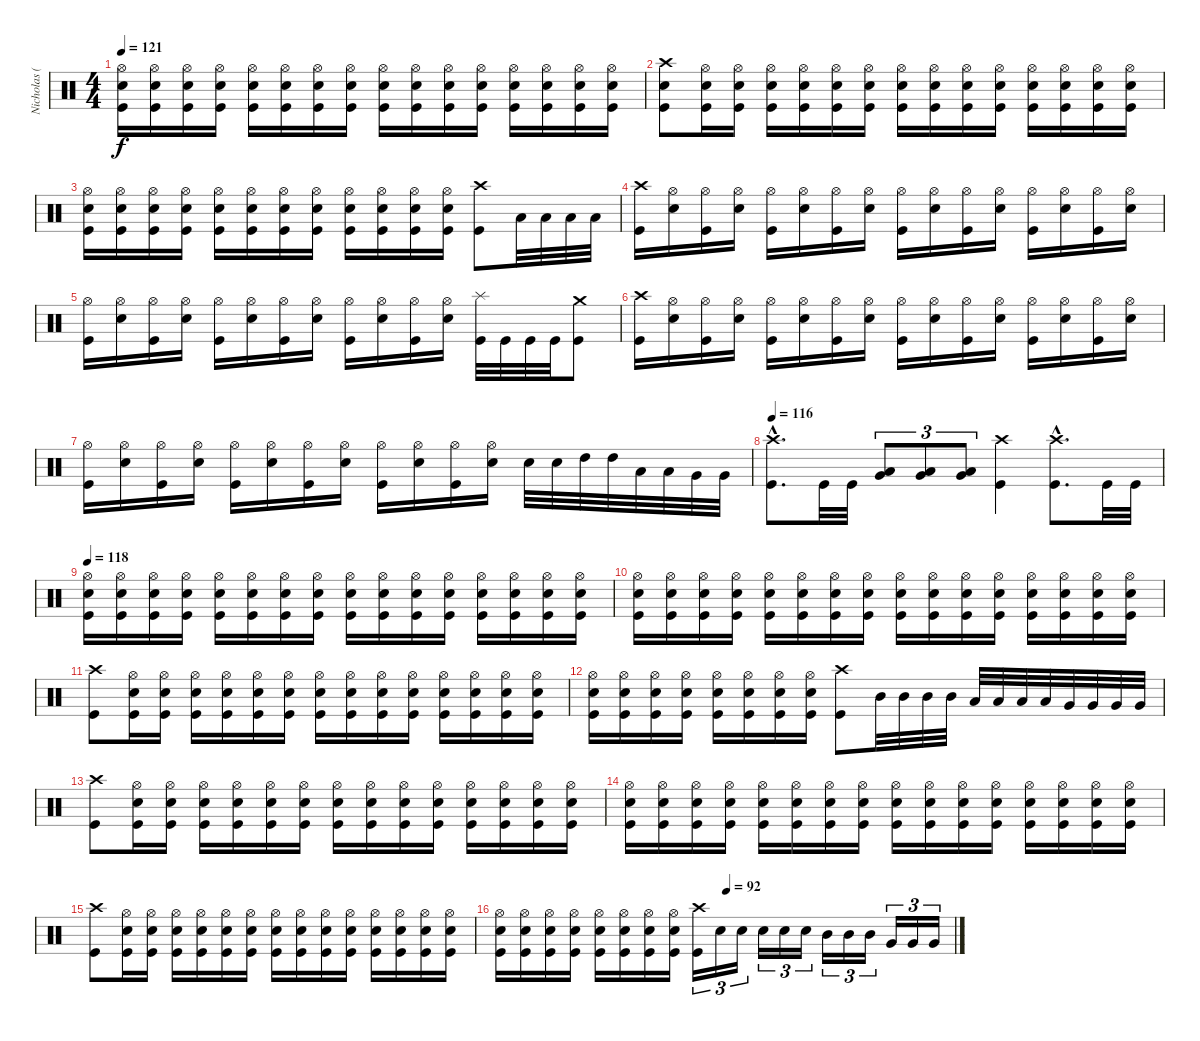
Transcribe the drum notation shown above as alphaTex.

\track ("Nicholas (Drums)" "Nicholas (") {instrument percussion}
\staff {score}
\articulation defaults
\ts (4 4)
\tempo 121
\clef neutral
\ks c
("Hi-Hat (open)" "Electric Snare (hit)" "Kick (hit)").16{dy f} ("Hi-Hat (open)" "Electric Snare (hit)" "Kick (hit)").16 ("Hi-Hat (open)" "Electric Snare (hit)" "Kick (hit)").16 ("Hi-Hat (open)" "Electric Snare (hit)" "Kick (hit)").16 ("Hi-Hat (open)" "Electric Snare (hit)" "Kick (hit)").16 ("Hi-Hat (open)" "Electric Snare (hit)" "Kick (hit)").16 ("Hi-Hat (open)" "Electric Snare (hit)" "Kick (hit)").16 ("Hi-Hat (open)" "Electric Snare (hit)" "Kick (hit)").16 ("Hi-Hat (open)" "Electric Snare (hit)" "Kick (hit)").16 ("Hi-Hat (open)" "Electric Snare (hit)" "Kick (hit)").16 ("Hi-Hat (open)" "Electric Snare (hit)" "Kick (hit)").16 ("Hi-Hat (open)" "Electric Snare (hit)" "Kick (hit)").16 ("Hi-Hat (open)" "Electric Snare (hit)" "Kick (hit)").16 ("Hi-Hat (open)" "Electric Snare (hit)" "Kick (hit)").16 ("Hi-Hat (open)" "Electric Snare (hit)" "Kick (hit)").16 ("Hi-Hat (open)" "Electric Snare (hit)" "Kick (hit)").16 |
("Crash high (hit)" "Electric Snare (hit)" "Kick (hit)").8 ("Hi-Hat (open)" "Electric Snare (hit)" "Kick (hit)").16 ("Hi-Hat (open)" "Electric Snare (hit)" "Kick (hit)").16 ("Hi-Hat (open)" "Electric Snare (hit)" "Kick (hit)").16 ("Hi-Hat (open)" "Electric Snare (hit)" "Kick (hit)").16 ("Hi-Hat (open)" "Electric Snare (hit)" "Kick (hit)").16 ("Hi-Hat (open)" "Electric Snare (hit)" "Kick (hit)").16 ("Hi-Hat (open)" "Electric Snare (hit)" "Kick (hit)").16 ("Hi-Hat (open)" "Electric Snare (hit)" "Kick (hit)").16 ("Hi-Hat (open)" "Electric Snare (hit)" "Kick (hit)").16 ("Hi-Hat (open)" "Electric Snare (hit)" "Kick (hit)").16 ("Hi-Hat (open)" "Electric Snare (hit)" "Kick (hit)").16 ("Hi-Hat (open)" "Electric Snare (hit)" "Kick (hit)").16 ("Hi-Hat (open)" "Electric Snare (hit)" "Kick (hit)").16 ("Hi-Hat (open)" "Electric Snare (hit)" "Kick (hit)").16 |
("Hi-Hat (open)" "Electric Snare (hit)" "Kick (hit)").16 ("Hi-Hat (open)" "Electric Snare (hit)" "Kick (hit)").16 ("Hi-Hat (open)" "Electric Snare (hit)" "Kick (hit)").16 ("Hi-Hat (open)" "Electric Snare (hit)" "Kick (hit)").16 ("Hi-Hat (open)" "Electric Snare (hit)" "Kick (hit)").16 ("Hi-Hat (open)" "Electric Snare (hit)" "Kick (hit)").16 ("Hi-Hat (open)" "Electric Snare (hit)" "Kick (hit)").16 ("Hi-Hat (open)" "Electric Snare (hit)" "Kick (hit)").16 ("Hi-Hat (open)" "Electric Snare (hit)" "Kick (hit)").16 ("Hi-Hat (open)" "Electric Snare (hit)" "Kick (hit)").16 ("Hi-Hat (open)" "Electric Snare (hit)" "Kick (hit)").16 ("Hi-Hat (open)" "Electric Snare (hit)" "Kick (hit)").16 ("Crash high (hit)" "Kick (hit)").8 "Low Tom (hit)".32 "Low Tom (hit)".32 "Low Tom (hit)".32 "Low Tom (hit)".32 |
("Crash high (hit)" "Kick (hit)").16 ("Hi-Hat (open)" "Electric Snare (hit)").16 ("Hi-Hat (open)" "Kick (hit)").16 ("Hi-Hat (open)" "Electric Snare (hit)").16 ("Hi-Hat (open)" "Kick (hit)").16 ("Hi-Hat (open)" "Electric Snare (hit)").16 ("Hi-Hat (open)" "Kick (hit)").16 ("Hi-Hat (open)" "Electric Snare (hit)").16 ("Hi-Hat (open)" "Kick (hit)").16 ("Hi-Hat (open)" "Electric Snare (hit)").16 ("Hi-Hat (open)" "Kick (hit)").16 ("Hi-Hat (open)" "Electric Snare (hit)").16 ("Hi-Hat (open)" "Kick (hit)").16 ("Hi-Hat (open)" "Electric Snare (hit)").16 ("Hi-Hat (open)" "Kick (hit)").16 ("Hi-Hat (open)" "Electric Snare (hit)").16 |
("Hi-Hat (open)" "Kick (hit)").16 ("Hi-Hat (open)" "Electric Snare (hit)").16 ("Hi-Hat (open)" "Kick (hit)").16 ("Hi-Hat (open)" "Electric Snare (hit)").16 ("Hi-Hat (open)" "Kick (hit)").16 ("Hi-Hat (open)" "Electric Snare (hit)").16 ("Hi-Hat (open)" "Kick (hit)").16 ("Hi-Hat (open)" "Electric Snare (hit)").16 ("Hi-Hat (open)" "Kick (hit)").16 ("Hi-Hat (open)" "Electric Snare (hit)").16 ("Hi-Hat (open)" "Kick (hit)").16 ("Hi-Hat (open)" "Electric Snare (hit)").16 ("Splash (hit)" "Kick (hit)").32 "Kick (hit)".32 "Kick (hit)".32 "Kick (hit)".32 ("Crash medium (hit)" "Kick (hit)").8 |
("Crash high (hit)" "Kick (hit)").16 ("Hi-Hat (open)" "Electric Snare (hit)").16 ("Hi-Hat (open)" "Kick (hit)").16 ("Hi-Hat (open)" "Electric Snare (hit)").16 ("Hi-Hat (open)" "Kick (hit)").16 ("Hi-Hat (open)" "Electric Snare (hit)").16 ("Hi-Hat (open)" "Kick (hit)").16 ("Hi-Hat (open)" "Electric Snare (hit)").16 ("Hi-Hat (open)" "Kick (hit)").16 ("Hi-Hat (open)" "Electric Snare (hit)").16 ("Hi-Hat (open)" "Kick (hit)").16 ("Hi-Hat (open)" "Electric Snare (hit)").16 ("Hi-Hat (open)" "Kick (hit)").16 ("Hi-Hat (open)" "Electric Snare (hit)").16 ("Hi-Hat (open)" "Kick (hit)").16 ("Hi-Hat (open)" "Electric Snare (hit)").16 |
("Hi-Hat (open)" "Kick (hit)").16 ("Hi-Hat (open)" "Electric Snare (hit)").16 ("Hi-Hat (open)" "Kick (hit)").16 ("Hi-Hat (open)" "Electric Snare (hit)").16 ("Hi-Hat (open)" "Kick (hit)").16 ("Hi-Hat (open)" "Electric Snare (hit)").16 ("Hi-Hat (open)" "Kick (hit)").16 ("Hi-Hat (open)" "Electric Snare (hit)").16 ("Hi-Hat (open)" "Kick (hit)").16 ("Hi-Hat (open)" "Electric Snare (hit)").16 ("Hi-Hat (open)" "Kick (hit)").16 ("Hi-Hat (open)" "Electric Snare (hit)").16 "Electric Snare (hit)".32 "Electric Snare (hit)".32 "High Tom (hit)".32 "High Tom (hit)".32 "Low Tom (hit)".32 "Low Tom (hit)".32 "Very Low Tom (hit)".32 "Very Low Tom (hit)".32 |
\tempo 116
("Crash high (hit)"{hac} "Kick (hit)"{hac}).8{d} "Kick (hit)".32 "Kick (hit)".32 ("Low Tom (hit)" "Very Low Tom (hit)").8{tu (3 2) bd 60} ("Low Tom (hit)" "Very Low Tom (hit)").8{tu (3 2) bd 60} ("Low Tom (hit)" "Very Low Tom (hit)").8{tu (3 2) bd 60} ("Crash high (hit)" "Kick (hit)").4 ("Crash high (hit)"{hac} "Kick (hit)"{hac}).8{d} "Kick (hit)".32 "Kick (hit)".32 |
\tempo 118
("Hi-Hat (open)" "Electric Snare (hit)" "Kick (hit)").16 ("Hi-Hat (open)" "Electric Snare (hit)" "Kick (hit)").16 ("Hi-Hat (open)" "Electric Snare (hit)" "Kick (hit)").16 ("Hi-Hat (open)" "Electric Snare (hit)" "Kick (hit)").16 ("Hi-Hat (open)" "Electric Snare (hit)" "Kick (hit)").16 ("Hi-Hat (open)" "Electric Snare (hit)" "Kick (hit)").16 ("Hi-Hat (open)" "Electric Snare (hit)" "Kick (hit)").16 ("Hi-Hat (open)" "Electric Snare (hit)" "Kick (hit)").16 ("Hi-Hat (open)" "Electric Snare (hit)" "Kick (hit)").16 ("Hi-Hat (open)" "Electric Snare (hit)" "Kick (hit)").16 ("Hi-Hat (open)" "Electric Snare (hit)" "Kick (hit)").16 ("Hi-Hat (open)" "Electric Snare (hit)" "Kick (hit)").16 ("Hi-Hat (open)" "Electric Snare (hit)" "Kick (hit)").16 ("Hi-Hat (open)" "Electric Snare (hit)" "Kick (hit)").16 ("Hi-Hat (open)" "Electric Snare (hit)" "Kick (hit)").16 ("Hi-Hat (open)" "Electric Snare (hit)" "Kick (hit)").16 |
("Hi-Hat (open)" "Electric Snare (hit)" "Kick (hit)").16 ("Hi-Hat (open)" "Electric Snare (hit)" "Kick (hit)").16 ("Hi-Hat (open)" "Electric Snare (hit)" "Kick (hit)").16 ("Hi-Hat (open)" "Electric Snare (hit)" "Kick (hit)").16 ("Hi-Hat (open)" "Electric Snare (hit)" "Kick (hit)").16 ("Hi-Hat (open)" "Electric Snare (hit)" "Kick (hit)").16 ("Hi-Hat (open)" "Electric Snare (hit)" "Kick (hit)").16 ("Hi-Hat (open)" "Electric Snare (hit)" "Kick (hit)").16 ("Hi-Hat (open)" "Electric Snare (hit)" "Kick (hit)").16 ("Hi-Hat (open)" "Electric Snare (hit)" "Kick (hit)").16 ("Hi-Hat (open)" "Electric Snare (hit)" "Kick (hit)").16 ("Hi-Hat (open)" "Electric Snare (hit)" "Kick (hit)").16 ("Hi-Hat (open)" "Electric Snare (hit)" "Kick (hit)").16 ("Hi-Hat (open)" "Electric Snare (hit)" "Kick (hit)").16 ("Hi-Hat (open)" "Electric Snare (hit)" "Kick (hit)").16 ("Hi-Hat (open)" "Electric Snare (hit)" "Kick (hit)").16 |
("Crash high (hit)" "Kick (hit)").8 ("Hi-Hat (open)" "Electric Snare (hit)" "Kick (hit)").16 ("Hi-Hat (open)" "Electric Snare (hit)" "Kick (hit)").16 ("Hi-Hat (open)" "Electric Snare (hit)" "Kick (hit)").16 ("Hi-Hat (open)" "Electric Snare (hit)" "Kick (hit)").16 ("Hi-Hat (open)" "Electric Snare (hit)" "Kick (hit)").16 ("Hi-Hat (open)" "Electric Snare (hit)" "Kick (hit)").16 ("Hi-Hat (open)" "Electric Snare (hit)" "Kick (hit)").16 ("Hi-Hat (open)" "Electric Snare (hit)" "Kick (hit)").16 ("Hi-Hat (open)" "Electric Snare (hit)" "Kick (hit)").16 ("Hi-Hat (open)" "Electric Snare (hit)" "Kick (hit)").16 ("Hi-Hat (open)" "Electric Snare (hit)" "Kick (hit)").16 ("Hi-Hat (open)" "Electric Snare (hit)" "Kick (hit)").16 ("Hi-Hat (open)" "Electric Snare (hit)" "Kick (hit)").16 ("Hi-Hat (open)" "Electric Snare (hit)" "Kick (hit)").16 |
("Hi-Hat (open)" "Electric Snare (hit)" "Kick (hit)").16 ("Hi-Hat (open)" "Electric Snare (hit)" "Kick (hit)").16 ("Hi-Hat (open)" "Electric Snare (hit)" "Kick (hit)").16 ("Hi-Hat (open)" "Electric Snare (hit)" "Kick (hit)").16 ("Hi-Hat (open)" "Electric Snare (hit)" "Kick (hit)").16 ("Hi-Hat (open)" "Electric Snare (hit)" "Kick (hit)").16 ("Hi-Hat (open)" "Electric Snare (hit)" "Kick (hit)").16 ("Hi-Hat (open)" "Electric Snare (hit)" "Kick (hit)").16 ("Crash high (hit)" "Kick (hit)").8 "Mid Tom (hit)".32 "Mid Tom (hit)".32 "Mid Tom (hit)".32 "Mid Tom (hit)".32 "Low Tom (hit)".32 "Low Tom (hit)".32 "Low Tom (hit)".32 "Low Tom (hit)".32 "Very Low Tom (hit)".32 "Very Low Tom (hit)".32 "Very Low Tom (hit)".32 "Very Low Tom (hit)".32 |
("Crash high (hit)" "Kick (hit)").8 ("Hi-Hat (open)" "Electric Snare (hit)" "Kick (hit)").16 ("Hi-Hat (open)" "Electric Snare (hit)" "Kick (hit)").16 ("Hi-Hat (open)" "Electric Snare (hit)" "Kick (hit)").16 ("Hi-Hat (open)" "Electric Snare (hit)" "Kick (hit)").16 ("Hi-Hat (open)" "Electric Snare (hit)" "Kick (hit)").16 ("Hi-Hat (open)" "Electric Snare (hit)" "Kick (hit)").16 ("Hi-Hat (open)" "Electric Snare (hit)" "Kick (hit)").16 ("Hi-Hat (open)" "Electric Snare (hit)" "Kick (hit)").16 ("Hi-Hat (open)" "Electric Snare (hit)" "Kick (hit)").16 ("Hi-Hat (open)" "Electric Snare (hit)" "Kick (hit)").16 ("Hi-Hat (open)" "Electric Snare (hit)" "Kick (hit)").16 ("Hi-Hat (open)" "Electric Snare (hit)" "Kick (hit)").16 ("Hi-Hat (open)" "Electric Snare (hit)" "Kick (hit)").16 ("Hi-Hat (open)" "Electric Snare (hit)" "Kick (hit)").16 |
("Hi-Hat (open)" "Electric Snare (hit)" "Kick (hit)").16 ("Hi-Hat (open)" "Electric Snare (hit)" "Kick (hit)").16 ("Hi-Hat (open)" "Electric Snare (hit)" "Kick (hit)").16 ("Hi-Hat (open)" "Electric Snare (hit)" "Kick (hit)").16 ("Hi-Hat (open)" "Electric Snare (hit)" "Kick (hit)").16 ("Hi-Hat (open)" "Electric Snare (hit)" "Kick (hit)").16 ("Hi-Hat (open)" "Electric Snare (hit)" "Kick (hit)").16 ("Hi-Hat (open)" "Electric Snare (hit)" "Kick (hit)").16 ("Hi-Hat (open)" "Electric Snare (hit)" "Kick (hit)").16 ("Hi-Hat (open)" "Electric Snare (hit)" "Kick (hit)").16 ("Hi-Hat (open)" "Electric Snare (hit)" "Kick (hit)").16 ("Hi-Hat (open)" "Electric Snare (hit)" "Kick (hit)").16 ("Hi-Hat (open)" "Electric Snare (hit)" "Kick (hit)").16 ("Hi-Hat (open)" "Electric Snare (hit)" "Kick (hit)").16 ("Hi-Hat (open)" "Electric Snare (hit)" "Kick (hit)").16 ("Hi-Hat (open)" "Electric Snare (hit)" "Kick (hit)").16 |
("Crash high (hit)" "Kick (hit)").8 ("Hi-Hat (open)" "Electric Snare (hit)" "Kick (hit)").16 ("Hi-Hat (open)" "Electric Snare (hit)" "Kick (hit)").16 ("Hi-Hat (open)" "Electric Snare (hit)" "Kick (hit)").16 ("Hi-Hat (open)" "Electric Snare (hit)" "Kick (hit)").16 ("Hi-Hat (open)" "Electric Snare (hit)" "Kick (hit)").16 ("Hi-Hat (open)" "Electric Snare (hit)" "Kick (hit)").16 ("Hi-Hat (open)" "Electric Snare (hit)" "Kick (hit)").16 ("Hi-Hat (open)" "Electric Snare (hit)" "Kick (hit)").16 ("Hi-Hat (open)" "Electric Snare (hit)" "Kick (hit)").16 ("Hi-Hat (open)" "Electric Snare (hit)" "Kick (hit)").16 ("Hi-Hat (open)" "Electric Snare (hit)" "Kick (hit)").16 ("Hi-Hat (open)" "Electric Snare (hit)" "Kick (hit)").16 ("Hi-Hat (open)" "Electric Snare (hit)" "Kick (hit)").16 ("Hi-Hat (open)" "Electric Snare (hit)" "Kick (hit)").16 |
\tempo (92 0.5)
("Hi-Hat (open)" "Electric Snare (hit)" "Kick (hit)").16 ("Hi-Hat (open)" "Electric Snare (hit)" "Kick (hit)").16 ("Hi-Hat (open)" "Electric Snare (hit)" "Kick (hit)").16 ("Hi-Hat (open)" "Electric Snare (hit)" "Kick (hit)").16 ("Hi-Hat (open)" "Electric Snare (hit)" "Kick (hit)").16 ("Hi-Hat (open)" "Electric Snare (hit)" "Kick (hit)").16 ("Hi-Hat (open)" "Electric Snare (hit)" "Kick (hit)").16 ("Hi-Hat (open)" "Electric Snare (hit)" "Kick (hit)").16 ("Crash high (hit)" "Kick (hit)").16{tu (3 2)} "Electric Snare (hit)".16{tu (3 2)} "Electric Snare (hit)".16{tu (3 2)} "Electric Snare (hit)".16{tu (3 2)} "Electric Snare (hit)".16{tu (3 2)} "Electric Snare (hit)".16{tu (3 2)} "Mid Tom (hit)".16{tu (3 2)} "Mid Tom (hit)".16{tu (3 2)} "Mid Tom (hit)".16{tu (3 2)} "Very Low Tom (hit)".16{tu (3 2)} "Very Low Tom (hit)".16{tu (3 2)} "Very Low Tom (hit)".16{tu (3 2)}
